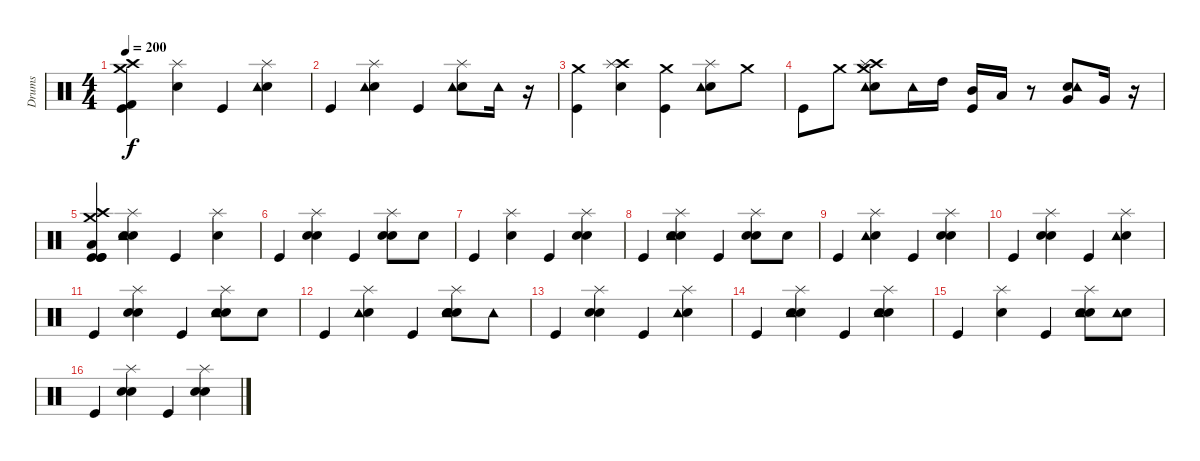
\track ("Drums" "Drums") {instrument percussion}
\staff {score}
\articulation defaults
\ts (4 4)
\tempo 200
\clef neutral
\ks c
("Kick (hit)" "Kick (hit) 2" "Crash high (hit)" "Crash medium (hit)").4{dy f} ("Snare (hit) 2" "Splash (hit)").4 "Kick (hit)".4 ("Snare (hit) 2" "Tambourine (hit)" "Splash (hit)").4 |
"Kick (hit)".4 ("Snare (hit) 2" "Tambourine (hit)" "Splash (hit)").4 "Kick (hit)".4 ("Snare (hit) 2" "Tambourine (hit)" "Splash (hit)").8 "Tambourine (hit)".16 r.16 |
("Kick (hit)" "Crash medium (hit)").4 ("Snare (hit) 2" "Crash high (hit)" "Splash (hit)").4 ("Kick (hit)" "Crash medium (hit)").4 ("Snare (hit) 2" "Tambourine (hit)" "Splash (hit)").8 "Crash medium (hit)".8 |
"Kick (hit)".8 "Crash medium (hit)".8 ("Snare (hit) 2" "Crash high (hit)" "Tambourine (hit)" "Splash (hit)" "Crash medium (hit)").8 "Tambourine (hit)".16 "High Tom (hit)".16 ("Kick (hit)" "Mid Tom (hit)").16 "Low Tom (hit)".16 r.8 ("Snare (hit) 2" "Very Low Tom (hit)" "Tambourine (hit)").8 "Very Low Tom (hit)".16 r.16 |
("Kick (hit)" "Kick (hit)" "Kick (hit)" "Low Floor Tom (hit)" "Crash high (hit)" "Crash medium (hit)").4 ("Snare (hit) 2" "Electric Snare (hit)" "Tambourine (hit)" "Splash (hit)").4 "Kick (hit)".4 ("Snare (hit) 2" "Splash (hit)").4 |
"Kick (hit)".4 ("Snare (hit) 2" "Electric Snare (hit)" "Splash (hit)").4 "Kick (hit)".4 ("Snare (hit) 2" "Electric Snare (hit)" "Splash (hit)").8 "Electric Snare (hit)".8 |
"Kick (hit)".4 ("Snare (hit) 2" "Splash (hit)").4 "Kick (hit)".4 ("Snare (hit) 2" "Electric Snare (hit)" "Splash (hit)").4 |
"Kick (hit)".4 ("Snare (hit) 2" "Electric Snare (hit)" "Tambourine (hit)" "Splash (hit)").4 "Kick (hit)".4 ("Snare (hit) 2" "Electric Snare (hit)" "Splash (hit)").8 "Electric Snare (hit)".8 |
"Kick (hit)".4 ("Snare (hit) 2" "Tambourine (hit)" "Splash (hit)").4 "Kick (hit)".4 ("Snare (hit) 2" "Electric Snare (hit)" "Splash (hit)").4 |
"Kick (hit)".4 ("Snare (hit) 2" "Electric Snare (hit)" "Splash (hit)").4 "Kick (hit)".4 ("Snare (hit) 2" "Tambourine (hit)" "Splash (hit)").4 |
"Kick (hit)".4 ("Snare (hit) 2" "Electric Snare (hit)" "Splash (hit)").4 "Kick (hit)".4 ("Snare (hit) 2" "Electric Snare (hit)" "Tambourine (hit)" "Splash (hit)").8 "Electric Snare (hit)".8 |
"Kick (hit)".4 ("Snare (hit) 2" "Tambourine (hit)" "Splash (hit)").4 "Kick (hit)".4 ("Snare (hit) 2" "Electric Snare (hit)" "Electric Snare (hit)" "Tambourine (hit)" "Splash (hit)").8 "Tambourine (hit)".8 |
"Kick (hit)".4 ("Snare (hit) 2" "Electric Snare (hit)" "Splash (hit)").4 "Kick (hit)".4 ("Snare (hit) 2" "Tambourine (hit)" "Splash (hit)").4 |
"Kick (hit)".4 ("Snare (hit) 2" "Electric Snare (hit)" "Tambourine (hit)" "Splash (hit)").4 "Kick (hit)".4 ("Snare (hit) 2" "Electric Snare (hit)" "Tambourine (hit)" "Splash (hit)").4 |
"Kick (hit)".4 ("Snare (hit) 2" "Splash (hit)").4 "Kick (hit)".4 ("Snare (hit) 2" "Electric Snare (hit)" "Tambourine (hit)" "Splash (hit)").8 ("Electric Snare (hit)" "Tambourine (hit)").8 |
"Kick (hit)".4 ("Snare (hit) 2" "Electric Snare (hit)" "Splash (hit)").4 "Kick (hit)".4 ("Snare (hit) 2" "Electric Snare (hit)" "Splash (hit)").4
